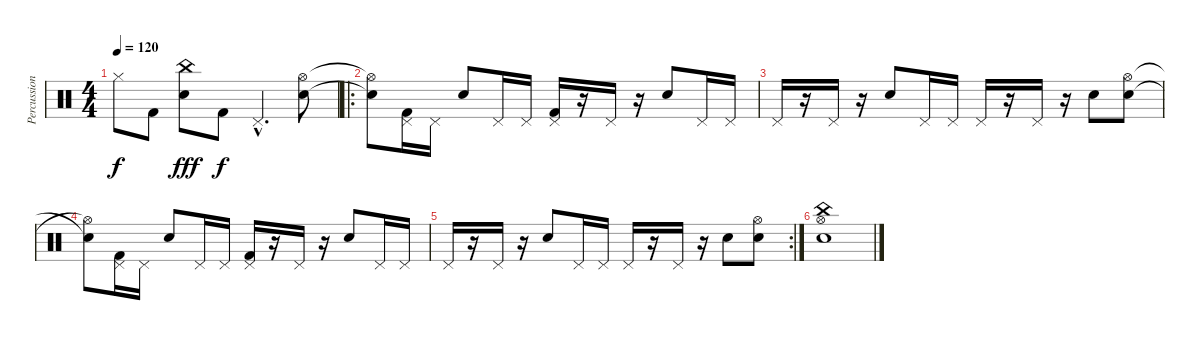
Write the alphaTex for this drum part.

\track ("Percussion" "Percussion") {instrument percussion}
\staff {score}
\articulation defaults
\ts (4 4)
\tempo 120
\clef neutral
\ks c "Hi-Hat (closed)".8{dy f} "Kick (hit) 2".8
("Snare (hit) 2" "China (hit)").8{dy fff} "Kick (hit) 2".8{dy f} "Pedal Hi-Hat (hit)"{hac}.4{d} ("Electric Snare (hit)" "Hi-Hat (open)").8 |
\ro
("Electric Snare (hit)"{t} "Hi-Hat (open)"{t}).8 ("Pedal Hi-Hat (hit)" "Kick (hit) 2").16 "Pedal Hi-Hat (hit)".16 "Snare (hit) 2".8 "Pedal Hi-Hat (hit)".16 "Pedal Hi-Hat (hit)".16 ("Pedal Hi-Hat (hit)" "Kick (hit) 2").16 r.16 "Pedal Hi-Hat (hit)".16 r.16 "Snare (hit) 2".8 "Pedal Hi-Hat (hit)".16 "Pedal Hi-Hat (hit)".16 |
"Pedal Hi-Hat (hit)".16 r.16 "Pedal Hi-Hat (hit)".16 r.16 "Snare (hit) 2".8 "Pedal Hi-Hat (hit)".16 "Pedal Hi-Hat (hit)".16 "Pedal Hi-Hat (hit)".16 r.16 "Pedal Hi-Hat (hit)".16 r.16 "Snare (hit) 2".8 ("Hi-Hat (open)" "Electric Snare (hit)").8 |
("Electric Snare (hit)"{t} "Hi-Hat (open)"{t}).8 ("Pedal Hi-Hat (hit)" "Kick (hit) 2").16 "Pedal Hi-Hat (hit)".16 "Snare (hit) 2".8 "Pedal Hi-Hat (hit)".16 "Pedal Hi-Hat (hit)".16 ("Pedal Hi-Hat (hit)" "Kick (hit) 2").16 r.16 "Pedal Hi-Hat (hit)".16 r.16 "Snare (hit) 2".8 "Pedal Hi-Hat (hit)".16 "Pedal Hi-Hat (hit)".16 |
\rc 2 "Pedal Hi-Hat (hit)".16
r.16 "Pedal Hi-Hat (hit)".16 r.16 "Snare (hit) 2".8 "Pedal Hi-Hat (hit)".16 "Pedal Hi-Hat (hit)".16 "Pedal Hi-Hat (hit)".16 r.16 "Pedal Hi-Hat (hit)".16 r.16 "Snare (hit) 2".8 ("Hi-Hat (open)" "Electric Snare (hit)").8 |
("Hi-Hat (open)" "Electric Snare (hit)" "China (hit)").1
